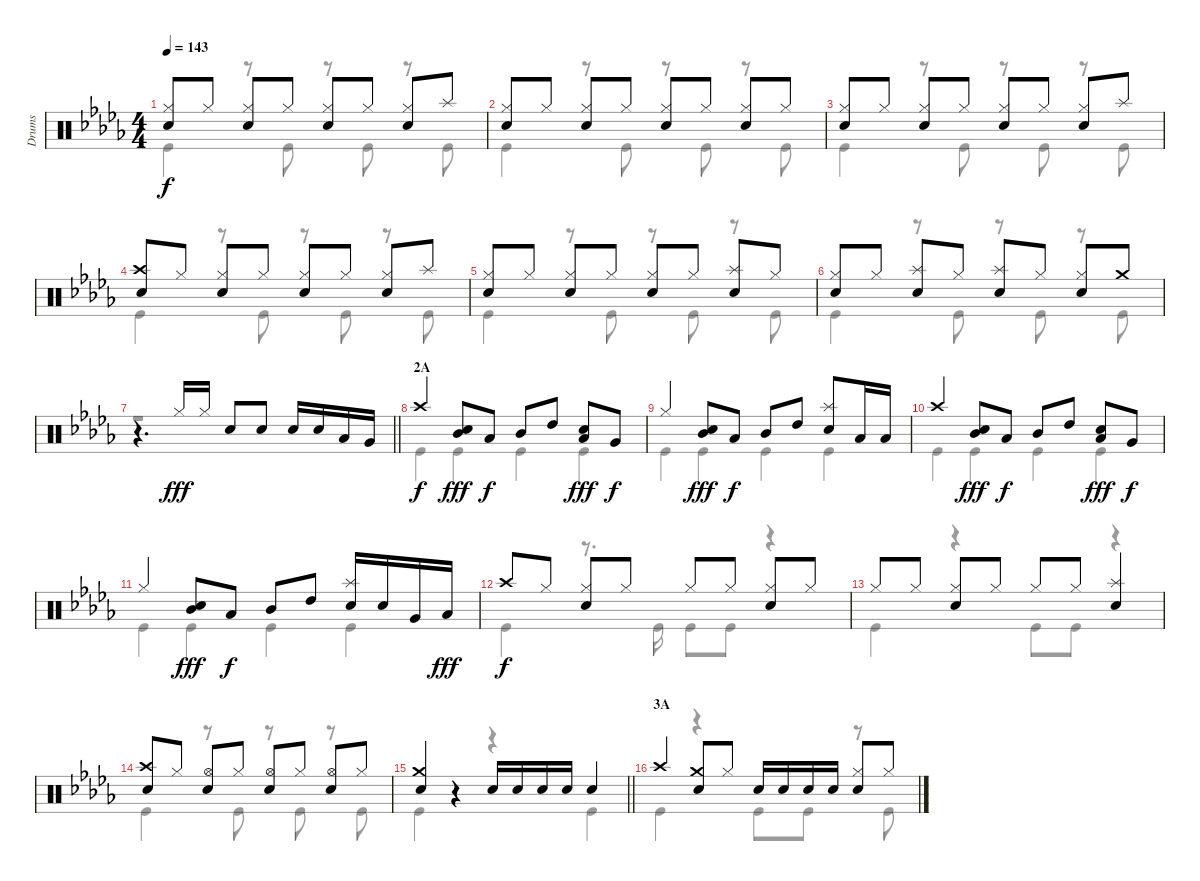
\track ("Drums" "Drums") {instrument percussion}
\staff {score}
\articulation defaults
\voice
\ts (4 4)
\tempo 143
\clef neutral
\ks db
("Hi-Hat (closed)" "Snare (hit) 2").8{dy f} "Hi-Hat (closed)".8 ("Hi-Hat (closed)" "Snare (hit) 2").8 "Hi-Hat (closed)".8 ("Hi-Hat (closed)" "Snare (hit) 2").8 "Hi-Hat (closed)".8 ("Hi-Hat (closed)" "Snare (hit) 2").8 "Splash (hit)".8 |
("Hi-Hat (closed)" "Snare (hit) 2").8 "Hi-Hat (closed)".8 ("Hi-Hat (closed)" "Snare (hit) 2").8 "Hi-Hat (closed)".8 ("Hi-Hat (closed)" "Snare (hit) 2").8 "Hi-Hat (closed)".8 ("Hi-Hat (closed)" "Snare (hit) 2").8 "Hi-Hat (closed)".8 |
("Hi-Hat (closed)" "Snare (hit) 2").8 "Hi-Hat (closed)".8 ("Hi-Hat (closed)" "Snare (hit) 2").8 "Hi-Hat (closed)".8 ("Hi-Hat (closed)" "Snare (hit) 2").8 "Hi-Hat (closed)".8 ("Hi-Hat (closed)" "Snare (hit) 2").8 "Splash (hit)".8 |
("Crash high (hit)" "Snare (hit) 2").8 "Hi-Hat (closed)".8 ("Hi-Hat (closed)" "Snare (hit) 2").8 "Hi-Hat (closed)".8 ("Hi-Hat (closed)" "Snare (hit) 2").8 "Hi-Hat (closed)".8 ("Hi-Hat (closed)" "Snare (hit) 2").8 "Splash (hit)".8 |
("Hi-Hat (closed)" "Snare (hit) 2").8 "Hi-Hat (closed)".8 ("Hi-Hat (closed)" "Snare (hit) 2").8 "Hi-Hat (closed)".8 ("Hi-Hat (closed)" "Snare (hit) 2").8 "Hi-Hat (closed)".8 ("Splash (hit)" "Snare (hit) 2").8 "Hi-Hat (closed)".8 |
("Hi-Hat (closed)" "Snare (hit) 2").8 "Hi-Hat (closed)".8 ("Splash (hit)" "Snare (hit) 2").8 "Hi-Hat (closed)".8 ("Splash (hit)" "Snare (hit) 2").8 "Hi-Hat (closed)".8 ("Hi-Hat (closed)" "Snare (hit) 2").8 "Crash medium (hit)".8 |
\barLineRight lightlight
r.4{d} "Hi-Hat (closed)".16{dy fff} "Hi-Hat (closed)".16 "Snare (hit) 2".8 "Snare (hit) 2".8 "Snare (hit) 2".16 "Snare (hit) 2".16 "Low Tom (hit)".16 "Very Low Tom (hit)".16 |
\section ("" "2A")
"Crash high (hit)".4{dy f} ("Mid Tom (hit)" "Snare (hit) 2").8{dy fff} "Low Tom (hit)".8{dy f} "Mid Tom (hit)".8 "High Tom (hit)".8 ("Low Tom (hit)" "Snare (hit) 2").8{dy fff} "Very Low Tom (hit)".8{dy f} |
"Hi-Hat (closed)".4 ("Mid Tom (hit)" "Snare (hit) 2").8{dy fff} "Low Tom (hit)".8{dy f} "Mid Tom (hit)".8 "High Tom (hit)".8 ("Splash (hit)" "Snare (hit) 2").8 "Low Tom (hit)".16 "Low Floor Tom (hit)".16 |
"Crash high (hit)".4 ("Mid Tom (hit)" "Snare (hit) 2").8{dy fff} "Low Tom (hit)".8{dy f} "Mid Tom (hit)".8 "High Tom (hit)".8 ("Low Tom (hit)" "Snare (hit) 2").8{dy fff} "Very Low Tom (hit)".8{dy f} |
"Hi-Hat (closed)".4 ("Mid Tom (hit)" "Snare (hit) 2").8{dy fff} "Low Tom (hit)".8{dy f} "Mid Tom (hit)".8 "High Tom (hit)".8 ("Splash (hit)" "Snare (hit) 2").16 "Snare (hit) 2".16 "Very Low Tom (hit)".16 "Low Floor Tom (hit)".16{dy fff} |
"Crash high (hit)".8{dy f} "Hi-Hat (closed)".8 ("Hi-Hat (closed)" "Snare (hit) 2").8 "Hi-Hat (closed)".8 "Hi-Hat (closed)".8 "Hi-Hat (closed)".8 ("Hi-Hat (closed)" "Snare (hit) 2").8 "Hi-Hat (closed)".8 |
"Hi-Hat (closed)".8 "Hi-Hat (closed)".8 ("Hi-Hat (closed)" "Snare (hit) 2").8 "Hi-Hat (closed)".8 "Hi-Hat (closed)".8 "Hi-Hat (closed)".8 ("Splash (hit)" "Snare (hit) 2").4 |
("Crash high (hit)" "Snare (hit) 2").8 "Hi-Hat (closed)".8 ("Hi-Hat (open)" "Snare (hit) 2").8 "Hi-Hat (closed)".8 ("Hi-Hat (open)" "Snare (hit) 2").8 "Hi-Hat (closed)".8 ("Hi-Hat (open)" "Snare (hit) 2").8 "Hi-Hat (closed)".8 |
\barLineRight lightlight
("Crash medium (hit)" "Snare (hit) 2").4 r.4 "Snare (hit) 2".16 "Snare (hit) 2".16 "Snare (hit) 2".16 "Snare (hit) 2".16 "Snare (hit) 2".4 |
\section ("" "3A")
"Crash high (hit)".4 ("Crash medium (hit)" "Snare (hit) 2").8 "Hi-Hat (closed)".8 "Snare (hit) 2".16 "Snare (hit) 2".16 "Snare (hit) 2".16 "Snare (hit) 2".16 ("Hi-Hat (closed)" "Snare (hit) 2").8 "Hi-Hat (closed)".8
\voice
\clef neutral
\ottava regular
\simile none
\ks db "Kick (hit)".4{dy f}
r.8 "Kick (hit)".8 r.8 "Kick (hit)".8 r.8 "Kick (hit)".8 |
"Kick (hit)".4 r.8 "Kick (hit)".8 r.8 "Kick (hit)".8 r.8 "Kick (hit)".8 |
"Kick (hit)".4 r.8 "Kick (hit)".8 r.8 "Kick (hit)".8 r.8 "Kick (hit)".8 |
"Kick (hit)".4 r.8 "Kick (hit)".8 r.8 "Kick (hit)".8 r.8 "Kick (hit)".8 |
"Kick (hit)".4 r.8 "Kick (hit)".8 r.8 "Kick (hit)".8 r.8 "Kick (hit)".8 |
"Kick (hit)".4 r.8 "Kick (hit)".8 r.8 "Kick (hit)".8 r.8 "Kick (hit)".8 |
\barLineRight lightlight
r.1 |
"Kick (hit)".4 "Kick (hit)".4 "Kick (hit)".4 "Kick (hit)".4 |
"Kick (hit)".4 "Kick (hit)".4 "Kick (hit)".4 "Kick (hit)".4 |
"Kick (hit)".4 "Kick (hit)".4 "Kick (hit)".4 "Kick (hit)".4 |
"Kick (hit)".4 "Kick (hit)".4 "Kick (hit)".4 "Kick (hit)".4 |
"Kick (hit)".4 r.8{d} "Kick (hit)".16 "Kick (hit)".8 "Kick (hit)".8 r.4 |
"Kick (hit)".4 r.4 "Kick (hit)".8 "Kick (hit)".8 r.4 |
"Kick (hit)".4 r.8 "Kick (hit)".8 r.8 "Kick (hit)".8 r.8 "Kick (hit)".8 |
\barLineRight lightlight "Kick (hit)".4
r.4 r.4 "Kick (hit)".4 |
"Kick (hit)".4 r.4 "Kick (hit)".8 "Kick (hit)".8 r.8 "Kick (hit)".8
